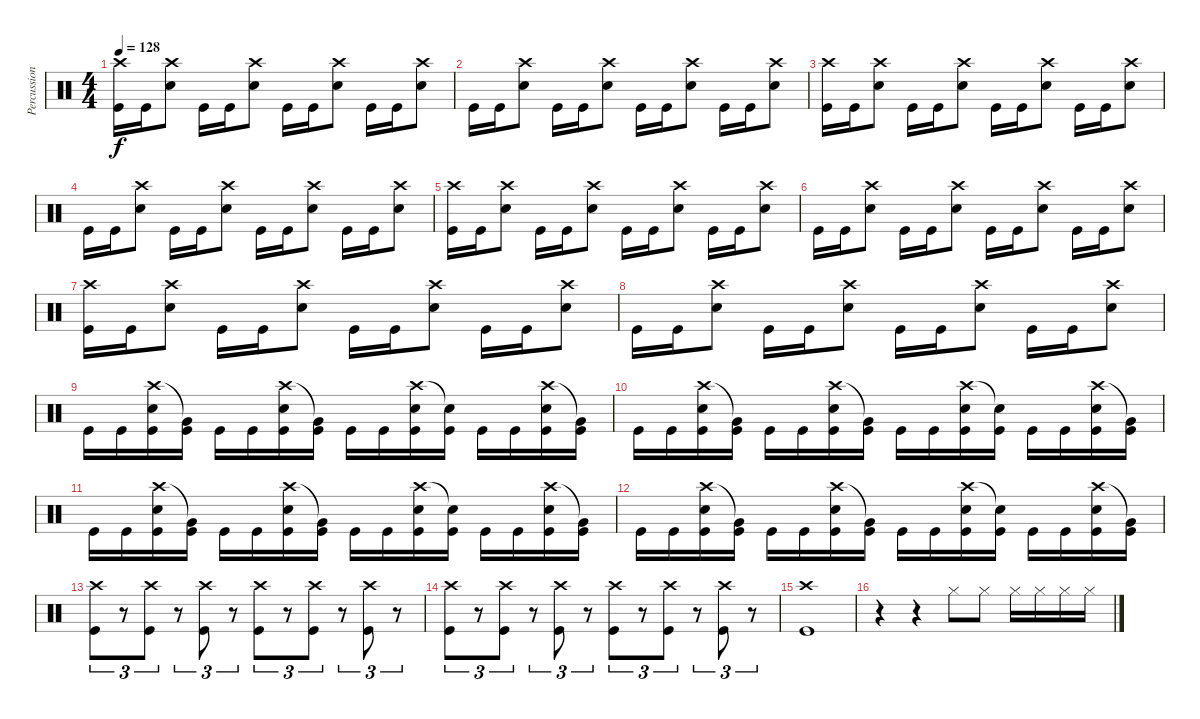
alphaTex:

\track ("Percussion" "Percussion") {instrument percussion}
\staff {score}
\articulation defaults
\ts (4 4)
\tempo 128
\clef neutral
\ks c
("Crash high (hit)" "Kick (hit)").16{dy f} "Kick (hit)".16 ("Crash high (hit)" "Electric Snare (hit)").8 "Kick (hit)".16 "Kick (hit)".16 ("Crash high (hit)" "Electric Snare (hit)").8 "Kick (hit)".16 "Kick (hit)".16 ("Crash high (hit)" "Electric Snare (hit)").8 "Kick (hit)".16 "Kick (hit)".16 ("Crash high (hit)" "Electric Snare (hit)").8 |
"Kick (hit)".16 "Kick (hit)".16 ("Crash high (hit)" "Electric Snare (hit)").8 "Kick (hit)".16 "Kick (hit)".16 ("Crash high (hit)" "Electric Snare (hit)").8 "Kick (hit)".16 "Kick (hit)".16 ("Crash high (hit)" "Electric Snare (hit)").8 "Kick (hit)".16 "Kick (hit)".16 ("Crash high (hit)" "Electric Snare (hit)").8 |
("Crash high (hit)" "Kick (hit)").16 "Kick (hit)".16 ("Crash high (hit)" "Electric Snare (hit)").8 "Kick (hit)".16 "Kick (hit)".16 ("Crash high (hit)" "Electric Snare (hit)").8 "Kick (hit)".16 "Kick (hit)".16 ("Crash high (hit)" "Electric Snare (hit)").8 "Kick (hit)".16 "Kick (hit)".16 ("Crash high (hit)" "Electric Snare (hit)").8 |
"Kick (hit)".16 "Kick (hit)".16 ("Crash high (hit)" "Electric Snare (hit)").8 "Kick (hit)".16 "Kick (hit)".16 ("Crash high (hit)" "Electric Snare (hit)").8 "Kick (hit)".16 "Kick (hit)".16 ("Crash high (hit)" "Electric Snare (hit)").8 "Kick (hit)".16 "Kick (hit)".16 ("Crash high (hit)" "Electric Snare (hit)").8 |
("Crash high (hit)" "Kick (hit)").16 "Kick (hit)".16 ("Crash high (hit)" "Electric Snare (hit)").8 "Kick (hit)".16 "Kick (hit)".16 ("Crash high (hit)" "Electric Snare (hit)").8 "Kick (hit)".16 "Kick (hit)".16 ("Crash high (hit)" "Electric Snare (hit)").8 "Kick (hit)".16 "Kick (hit)".16 ("Crash high (hit)" "Electric Snare (hit)").8 |
"Kick (hit)".16 "Kick (hit)".16 ("Crash high (hit)" "Electric Snare (hit)").8 "Kick (hit)".16 "Kick (hit)".16 ("Crash high (hit)" "Electric Snare (hit)").8 "Kick (hit)".16 "Kick (hit)".16 ("Crash high (hit)" "Electric Snare (hit)").8 "Kick (hit)".16 "Kick (hit)".16 ("Crash high (hit)" "Electric Snare (hit)").8 |
("Crash high (hit)" "Kick (hit)").16 "Kick (hit)".16 ("Crash high (hit)" "Electric Snare (hit)").8 "Kick (hit)".16 "Kick (hit)".16 ("Crash high (hit)" "Electric Snare (hit)").8 "Kick (hit)".16 "Kick (hit)".16 ("Crash high (hit)" "Electric Snare (hit)").8 "Kick (hit)".16 "Kick (hit)".16 ("Crash high (hit)" "Electric Snare (hit)").8 |
"Kick (hit)".16 "Kick (hit)".16 ("Crash high (hit)" "Electric Snare (hit)").8 "Kick (hit)".16 "Kick (hit)".16 ("Crash high (hit)" "Electric Snare (hit)").8 "Kick (hit)".16 "Kick (hit)".16 ("Crash high (hit)" "Electric Snare (hit)").8 "Kick (hit)".16 "Kick (hit)".16 ("Crash high (hit)" "Electric Snare (hit)").8 |
"Kick (hit)".16 "Kick (hit)".16 ("Crash high (hit)" "Electric Snare (hit)" "Kick (hit)").16 ("Very Low Tom (hit)"{t} "Kick (hit)").16 "Kick (hit)".16 "Kick (hit)".16 ("Crash high (hit)" "Electric Snare (hit)" "Kick (hit)").16 ("Very Low Tom (hit)"{t} "Kick (hit)").16 "Kick (hit)".16 "Kick (hit)".16 ("Crash high (hit)" "Electric Snare (hit)" "Kick (hit)").16 ("Electric Snare (hit)"{t} "Kick (hit)").16 "Kick (hit)".16 "Kick (hit)".16 ("Crash high (hit)" "Electric Snare (hit)" "Kick (hit)").16 ("Very Low Tom (hit)"{t} "Kick (hit)").16 |
"Kick (hit)".16 "Kick (hit)".16 ("Crash high (hit)" "Electric Snare (hit)" "Kick (hit)").16 ("Very Low Tom (hit)"{t} "Kick (hit)").16 "Kick (hit)".16 "Kick (hit)".16 ("Crash high (hit)" "Electric Snare (hit)" "Kick (hit)").16 ("Very Low Tom (hit)"{t} "Kick (hit)").16 "Kick (hit)".16 "Kick (hit)".16 ("Crash high (hit)" "Electric Snare (hit)" "Kick (hit)").16 ("Electric Snare (hit)"{t} "Kick (hit)").16 "Kick (hit)".16 "Kick (hit)".16 ("Crash high (hit)" "Electric Snare (hit)" "Kick (hit)").16 ("Very Low Tom (hit)"{t} "Kick (hit)").16 |
"Kick (hit)".16 "Kick (hit)".16 ("Crash high (hit)" "Electric Snare (hit)" "Kick (hit)").16 ("Very Low Tom (hit)"{t} "Kick (hit)").16 "Kick (hit)".16 "Kick (hit)".16 ("Crash high (hit)" "Electric Snare (hit)" "Kick (hit)").16 ("Very Low Tom (hit)"{t} "Kick (hit)").16 "Kick (hit)".16 "Kick (hit)".16 ("Crash high (hit)" "Electric Snare (hit)" "Kick (hit)").16 ("Electric Snare (hit)"{t} "Kick (hit)").16 "Kick (hit)".16 "Kick (hit)".16 ("Crash high (hit)" "Electric Snare (hit)" "Kick (hit)").16 ("Very Low Tom (hit)"{t} "Kick (hit)").16 |
"Kick (hit)".16 "Kick (hit)".16 ("Crash high (hit)" "Electric Snare (hit)" "Kick (hit)").16 ("Very Low Tom (hit)"{t} "Kick (hit)").16 "Kick (hit)".16 "Kick (hit)".16 ("Crash high (hit)" "Electric Snare (hit)" "Kick (hit)").16 ("Very Low Tom (hit)"{t} "Kick (hit)").16 "Kick (hit)".16 "Kick (hit)".16 ("Crash high (hit)" "Electric Snare (hit)" "Kick (hit)").16 ("Electric Snare (hit)"{t} "Kick (hit)").16 "Kick (hit)".16 "Kick (hit)".16 ("Crash high (hit)" "Electric Snare (hit)" "Kick (hit)").16 ("Very Low Tom (hit)"{t} "Kick (hit)").16 |
("Crash high (hit)" "Kick (hit)").8{tu (3 2)} r.8{tu (3 2)} ("Crash high (hit)" "Kick (hit)").8{tu (3 2)} r.8{tu (3 2)} ("Crash high (hit)" "Kick (hit)").8{tu (3 2)} r.8{tu (3 2)} ("Crash high (hit)" "Kick (hit)").8{tu (3 2)} r.8{tu (3 2)} ("Crash high (hit)" "Kick (hit)").8{tu (3 2)} r.8{tu (3 2)} ("Crash high (hit)" "Kick (hit)").8{tu (3 2)} r.8{tu (3 2)} |
("Crash high (hit)" "Kick (hit)").8{tu (3 2)} r.8{tu (3 2)} ("Crash high (hit)" "Kick (hit)").8{tu (3 2)} r.8{tu (3 2)} ("Crash high (hit)" "Kick (hit)").8{tu (3 2)} r.8{tu (3 2)} ("Crash high (hit)" "Kick (hit)").8{tu (3 2)} r.8{tu (3 2)} ("Crash high (hit)" "Kick (hit)").8{tu (3 2)} r.8{tu (3 2)} ("Crash high (hit)" "Kick (hit)").8{tu (3 2)} r.8{tu (3 2)} |
("Crash high (hit)" "Kick (hit)").1 |
r.4 r.4 "Hi-Hat (closed)".8 "Hi-Hat (closed)".8 "Hi-Hat (closed)".16 "Hi-Hat (closed)".16 "Hi-Hat (closed)".16 "Hi-Hat (closed)".16
